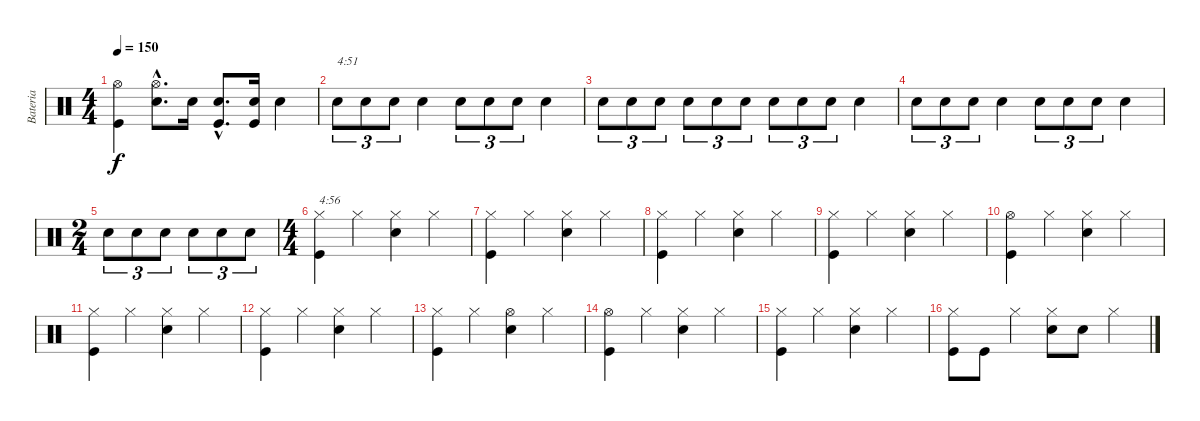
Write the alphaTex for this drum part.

\track ("Bateria" "Bateria") {instrument percussion}
\staff {score}
\articulation defaults
\ts (4 4)
\tempo 150
\clef neutral
\ks c
("Kick (hit)" "Hi-Hat (open)").4{dy f} ("Snare (hit) 2"{hac} "Hi-Hat (open)"{hac}).8{d} "Snare (hit) 2".16 ("Kick (hit)"{hac} "Snare (hit) 2"{hac}).8{d} ("Kick (hit)" "Snare (hit) 2").16 "Snare (hit) 2".4 |
"Snare (hit) 2".8{tu (3 2) txt "4:51"} "Snare (hit) 2".8{tu (3 2)} "Snare (hit) 2".8{tu (3 2)} "Snare (hit) 2".4 "Snare (hit) 2".8{tu (3 2)} "Snare (hit) 2".8{tu (3 2)} "Snare (hit) 2".8{tu (3 2)} "Snare (hit) 2".4 |
"Snare (hit) 2".8{tu (3 2)} "Snare (hit) 2".8{tu (3 2)} "Snare (hit) 2".8{tu (3 2)} "Snare (hit) 2".8{tu (3 2)} "Snare (hit) 2".8{tu (3 2)} "Snare (hit) 2".8{tu (3 2)} "Snare (hit) 2".8{tu (3 2)} "Snare (hit) 2".8{tu (3 2)} "Snare (hit) 2".8{tu (3 2)} "Snare (hit) 2".4 |
"Snare (hit) 2".8{tu (3 2)} "Snare (hit) 2".8{tu (3 2)} "Snare (hit) 2".8{tu (3 2)} "Snare (hit) 2".4 "Snare (hit) 2".8{tu (3 2)} "Snare (hit) 2".8{tu (3 2)} "Snare (hit) 2".8{tu (3 2)} "Snare (hit) 2".4 |
\ts (2 4)
"Snare (hit) 2".8{tu (3 2)} "Snare (hit) 2".8{tu (3 2)} "Snare (hit) 2".8{tu (3 2)} "Snare (hit) 2".8{tu (3 2)} "Snare (hit) 2".8{tu (3 2)} "Snare (hit) 2".8{tu (3 2)} |
\ts (4 4)
("Kick (hit)" "Hi-Hat (closed)").4{txt "4:56"} "Hi-Hat (closed)".4 ("Snare (hit) 2" "Hi-Hat (closed)").4 "Hi-Hat (closed)".4 |
("Kick (hit)" "Hi-Hat (closed)").4 "Hi-Hat (closed)".4 ("Snare (hit) 2" "Hi-Hat (closed)").4 "Hi-Hat (closed)".4 |
("Kick (hit)" "Hi-Hat (closed)").4 "Hi-Hat (closed)".4 ("Snare (hit) 2" "Hi-Hat (closed)").4 "Hi-Hat (closed)".4 |
("Kick (hit)" "Hi-Hat (closed)").4 "Hi-Hat (closed)".4 ("Snare (hit) 2" "Hi-Hat (closed)").4 "Hi-Hat (closed)".4 |
("Kick (hit)" "Hi-Hat (open)").4 "Hi-Hat (closed)".4 ("Snare (hit) 2" "Hi-Hat (closed)").4 "Hi-Hat (closed)".4 |
("Kick (hit)" "Hi-Hat (closed)").4 "Hi-Hat (closed)".4 ("Snare (hit) 2" "Hi-Hat (closed)").4 "Hi-Hat (closed)".4 |
("Kick (hit)" "Hi-Hat (closed)").4 "Hi-Hat (closed)".4 ("Snare (hit) 2" "Hi-Hat (closed)").4 "Hi-Hat (closed)".4 |
("Kick (hit)" "Hi-Hat (closed)").4 "Hi-Hat (closed)".4 ("Snare (hit) 2" "Hi-Hat (open)").4 "Hi-Hat (closed)".4 |
("Kick (hit)" "Hi-Hat (open)").4 "Hi-Hat (closed)".4 ("Snare (hit) 2" "Hi-Hat (closed)").4 "Hi-Hat (closed)".4 |
("Kick (hit)" "Hi-Hat (closed)").4 "Hi-Hat (closed)".4 ("Snare (hit) 2" "Hi-Hat (closed)").4 "Hi-Hat (closed)".4 |
("Kick (hit)" "Hi-Hat (closed)").8 "Kick (hit)".8 "Hi-Hat (closed)".4 ("Snare (hit) 2" "Hi-Hat (closed)").8 "Snare (hit) 2".8 "Hi-Hat (closed)".4
